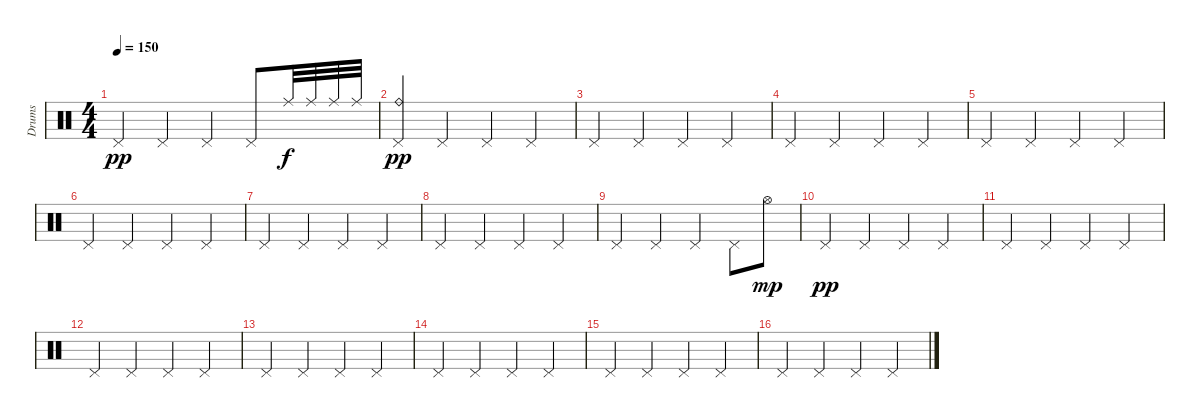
\track ("Drums" "Drums") {instrument percussion}
\staff {score}
\articulation defaults
\ts (4 4)
\tempo 150
\clef neutral
\ks c "Pedal Hi-Hat (hit)".4{dy pp} "Pedal Hi-Hat (hit)".4 "Pedal Hi-Hat (hit)".4 "Pedal Hi-Hat (hit)".8 "Ride (middle)".32{dy f} "Ride (middle)".32 "Ride (middle)".32 "Ride (middle)".32
|
("Pedal Hi-Hat (hit)" "Ride (bell)").4{dy pp} "Pedal Hi-Hat (hit)".4 "Pedal Hi-Hat (hit)".4 "Pedal Hi-Hat (hit)".4 |
"Pedal Hi-Hat (hit)".4 "Pedal Hi-Hat (hit)".4 "Pedal Hi-Hat (hit)".4 "Pedal Hi-Hat (hit)".4 |
"Pedal Hi-Hat (hit)".4 "Pedal Hi-Hat (hit)".4 "Pedal Hi-Hat (hit)".4 "Pedal Hi-Hat (hit)".4 |
"Pedal Hi-Hat (hit)".4 "Pedal Hi-Hat (hit)".4 "Pedal Hi-Hat (hit)".4 "Pedal Hi-Hat (hit)".4 |
"Pedal Hi-Hat (hit)".4 "Pedal Hi-Hat (hit)".4 "Pedal Hi-Hat (hit)".4 "Pedal Hi-Hat (hit)".4 |
"Pedal Hi-Hat (hit)".4 "Pedal Hi-Hat (hit)".4 "Pedal Hi-Hat (hit)".4 "Pedal Hi-Hat (hit)".4 |
"Pedal Hi-Hat (hit)".4 "Pedal Hi-Hat (hit)".4 "Pedal Hi-Hat (hit)".4 "Pedal Hi-Hat (hit)".4 |
"Pedal Hi-Hat (hit)".4 "Pedal Hi-Hat (hit)".4 "Pedal Hi-Hat (hit)".4 "Pedal Hi-Hat (hit)".8 "Hi-Hat (open)".8{dy mp} |
"Pedal Hi-Hat (hit)".4{dy pp} "Pedal Hi-Hat (hit)".4 "Pedal Hi-Hat (hit)".4 "Pedal Hi-Hat (hit)".4 |
"Pedal Hi-Hat (hit)".4 "Pedal Hi-Hat (hit)".4 "Pedal Hi-Hat (hit)".4 "Pedal Hi-Hat (hit)".4 |
"Pedal Hi-Hat (hit)".4 "Pedal Hi-Hat (hit)".4 "Pedal Hi-Hat (hit)".4 "Pedal Hi-Hat (hit)".4 |
"Pedal Hi-Hat (hit)".4 "Pedal Hi-Hat (hit)".4 "Pedal Hi-Hat (hit)".4 "Pedal Hi-Hat (hit)".4 |
"Pedal Hi-Hat (hit)".4 "Pedal Hi-Hat (hit)".4 "Pedal Hi-Hat (hit)".4 "Pedal Hi-Hat (hit)".4 |
"Pedal Hi-Hat (hit)".4 "Pedal Hi-Hat (hit)".4 "Pedal Hi-Hat (hit)".4 "Pedal Hi-Hat (hit)".4 |
"Pedal Hi-Hat (hit)".4 "Pedal Hi-Hat (hit)".4 "Pedal Hi-Hat (hit)".4 "Pedal Hi-Hat (hit)".4
